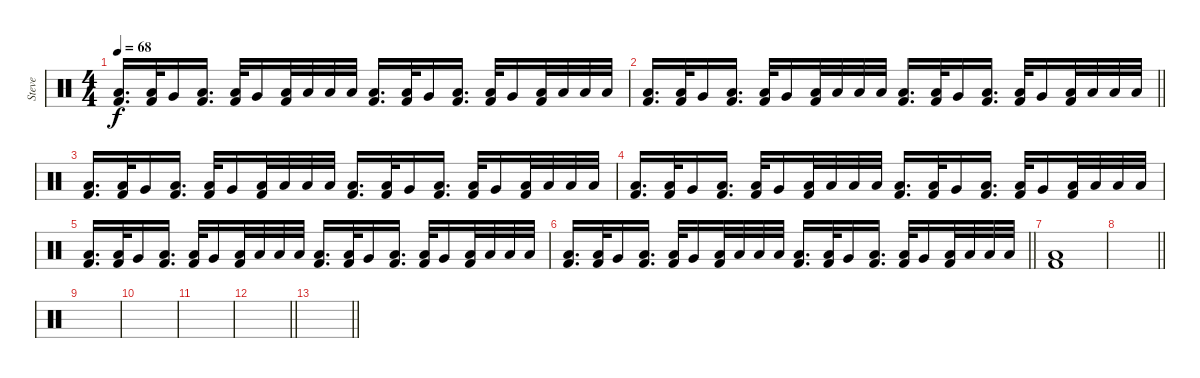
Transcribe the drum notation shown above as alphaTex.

\track ("Steve" "Steve") {instrument percussion}
\staff {score}
\articulation defaults
\ts (4 4)
\tempo 68
\clef neutral
\ks c
("Kick (hit) 2" "Low Floor Tom (hit)").16{d dy f} ("Kick (hit) 2" "Low Tom (hit)").32 "Very Low Tom (hit)".16 ("Kick (hit) 2" "Low Floor Tom (hit)").16{d} ("Kick (hit) 2" "Low Tom (hit)").32 "Very Low Tom (hit)".16 ("Kick (hit) 2" "Low Floor Tom (hit)").32 "Low Floor Tom (hit)".32 "Low Floor Tom (hit)".32 "Low Floor Tom (hit)".32 ("Kick (hit) 2" "Low Floor Tom (hit)").16{d} ("Kick (hit) 2" "Low Tom (hit)").32 "Very Low Tom (hit)".16 ("Kick (hit) 2" "Low Floor Tom (hit)").16{d} ("Kick (hit) 2" "Low Tom (hit)").32 "Very Low Tom (hit)".16 ("Kick (hit) 2" "Low Floor Tom (hit)").32 "Low Floor Tom (hit)".32 "Low Floor Tom (hit)".32 "Low Floor Tom (hit)".32 |
\barLineRight lightlight
("Kick (hit) 2" "Low Floor Tom (hit)").16{d} ("Kick (hit) 2" "Low Tom (hit)").32 "Very Low Tom (hit)".16 ("Kick (hit) 2" "Low Floor Tom (hit)").16{d} ("Kick (hit) 2" "Low Tom (hit)").32 "Very Low Tom (hit)".16 ("Kick (hit) 2" "Low Floor Tom (hit)").32 "Low Floor Tom (hit)".32 "Low Floor Tom (hit)".32 "Low Floor Tom (hit)".32 ("Kick (hit) 2" "Low Floor Tom (hit)").16{d} ("Kick (hit) 2" "Low Tom (hit)").32 "Very Low Tom (hit)".16 ("Kick (hit) 2" "Low Floor Tom (hit)").16{d} ("Kick (hit) 2" "Low Tom (hit)").32 "Very Low Tom (hit)".16 ("Kick (hit) 2" "Low Floor Tom (hit)").32 "Low Floor Tom (hit)".32 "Low Floor Tom (hit)".32 "Low Floor Tom (hit)".32 |
("Kick (hit) 2" "Low Floor Tom (hit)").16{d} ("Kick (hit) 2" "Low Tom (hit)").32 "Very Low Tom (hit)".16 ("Kick (hit) 2" "Low Floor Tom (hit)").16{d} ("Kick (hit) 2" "Low Tom (hit)").32 "Very Low Tom (hit)".16 ("Kick (hit) 2" "Low Floor Tom (hit)").32 "Low Floor Tom (hit)".32 "Low Floor Tom (hit)".32 "Low Floor Tom (hit)".32 ("Kick (hit) 2" "Low Floor Tom (hit)").16{d} ("Kick (hit) 2" "Low Tom (hit)").32 "Very Low Tom (hit)".16 ("Kick (hit) 2" "Low Floor Tom (hit)").16{d} ("Kick (hit) 2" "Low Tom (hit)").32 "Very Low Tom (hit)".16 ("Kick (hit) 2" "Low Floor Tom (hit)").32 "Low Floor Tom (hit)".32 "Low Floor Tom (hit)".32 "Low Floor Tom (hit)".32 |
("Kick (hit) 2" "Low Floor Tom (hit)").16{d} ("Kick (hit) 2" "Low Tom (hit)").32 "Very Low Tom (hit)".16 ("Kick (hit) 2" "Low Floor Tom (hit)").16{d} ("Kick (hit) 2" "Low Tom (hit)").32 "Very Low Tom (hit)".16 ("Kick (hit) 2" "Low Floor Tom (hit)").32 "Low Floor Tom (hit)".32 "Low Floor Tom (hit)".32 "Low Floor Tom (hit)".32 ("Kick (hit) 2" "Low Floor Tom (hit)").16{d} ("Kick (hit) 2" "Low Tom (hit)").32 "Very Low Tom (hit)".16 ("Kick (hit) 2" "Low Floor Tom (hit)").16{d} ("Kick (hit) 2" "Low Tom (hit)").32 "Very Low Tom (hit)".16 ("Kick (hit) 2" "Low Floor Tom (hit)").32 "Low Floor Tom (hit)".32 "Low Floor Tom (hit)".32 "Low Floor Tom (hit)".32 |
("Kick (hit) 2" "Low Floor Tom (hit)").16{d} ("Kick (hit) 2" "Low Tom (hit)").32 "Very Low Tom (hit)".16 ("Kick (hit) 2" "Low Floor Tom (hit)").16{d} ("Kick (hit) 2" "Low Tom (hit)").32 "Very Low Tom (hit)".16 ("Kick (hit) 2" "Low Floor Tom (hit)").32 "Low Floor Tom (hit)".32 "Low Floor Tom (hit)".32 "Low Floor Tom (hit)".32 ("Kick (hit) 2" "Low Floor Tom (hit)").16{d} ("Kick (hit) 2" "Low Tom (hit)").32 "Very Low Tom (hit)".16 ("Kick (hit) 2" "Low Floor Tom (hit)").16{d} ("Kick (hit) 2" "Low Tom (hit)").32 "Very Low Tom (hit)".16 ("Kick (hit) 2" "Low Floor Tom (hit)").32 "Low Floor Tom (hit)".32 "Low Floor Tom (hit)".32 "Low Floor Tom (hit)".32 |
\barLineRight lightlight
("Kick (hit) 2" "Low Floor Tom (hit)").16{d} ("Kick (hit) 2" "Low Tom (hit)").32 "Very Low Tom (hit)".16 ("Kick (hit) 2" "Low Floor Tom (hit)").16{d} ("Kick (hit) 2" "Low Tom (hit)").32 "Very Low Tom (hit)".16 ("Kick (hit) 2" "Low Floor Tom (hit)").32 "Low Floor Tom (hit)".32 "Low Floor Tom (hit)".32 "Low Floor Tom (hit)".32 ("Kick (hit) 2" "Low Floor Tom (hit)").16{d} ("Kick (hit) 2" "Low Tom (hit)").32 "Very Low Tom (hit)".16 ("Kick (hit) 2" "Low Floor Tom (hit)").16{d} ("Kick (hit) 2" "Low Tom (hit)").32 "Very Low Tom (hit)".16 ("Kick (hit) 2" "Low Floor Tom (hit)").32 "Low Floor Tom (hit)".32 "Low Floor Tom (hit)".32 "Low Floor Tom (hit)".32 |
("Kick (hit) 2" "Low Floor Tom (hit)").1 |
\barLineRight lightlight
|
|
|
|
\barLineRight lightlight
|
\barLineRight lightlight
